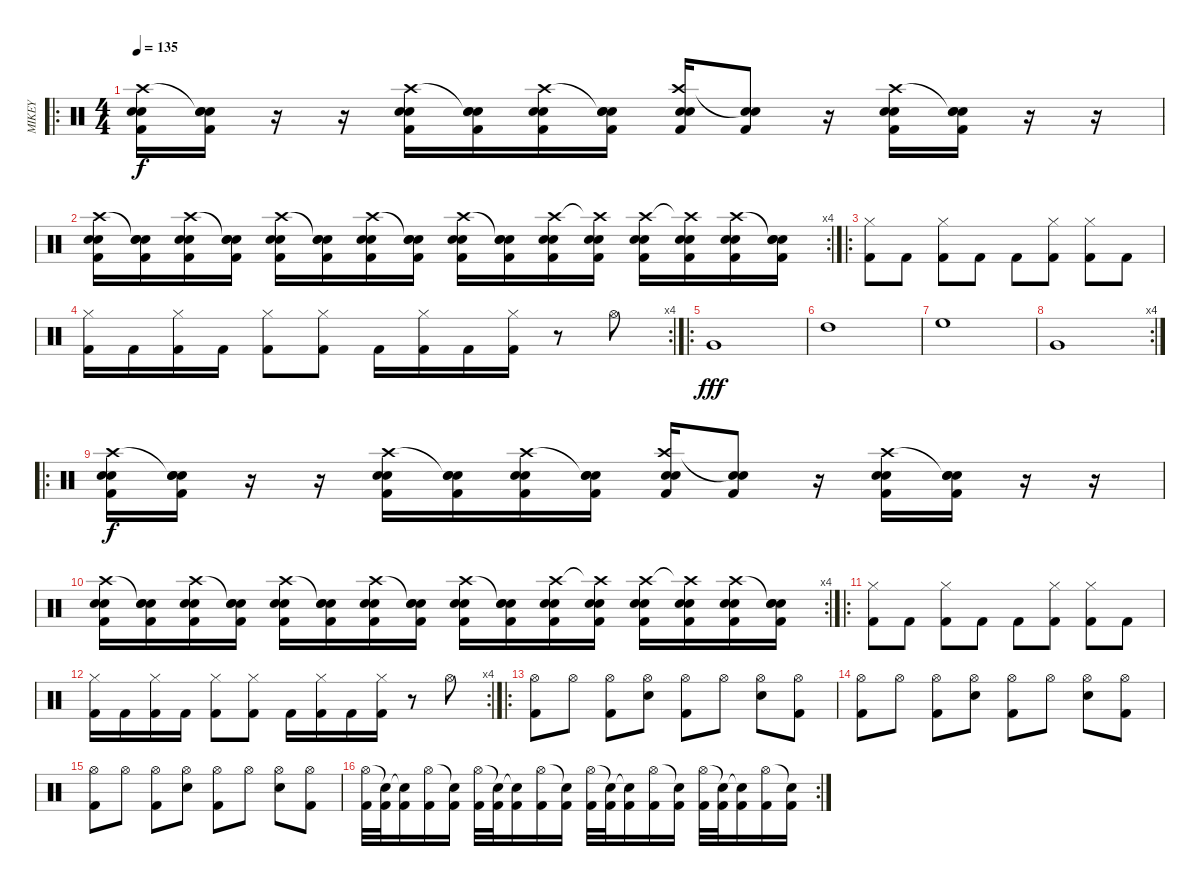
\track ("MIKEY" "MIKEY") {instrument percussion}
\staff {score}
\articulation defaults
\ro
\ts (4 4)
\tempo 135
\clef neutral
\ks c
("Snare (hit) 2" "Crash high (hit)" "Kick (hit) 2" "Electric Snare (hit)").16{dy f volume 12} ("Snare (hit) 2" "Snare (hit)"{t} "Kick (hit) 2" "Electric Snare (hit)").16 r.16 r.16 ("Snare (hit) 2" "Crash high (hit)" "Kick (hit) 2" "Electric Snare (hit)").16 ("Snare (hit) 2" "Snare (hit)"{t} "Kick (hit) 2" "Electric Snare (hit)").16 ("Snare (hit) 2" "Crash high (hit)" "Kick (hit) 2" "Electric Snare (hit)").16 ("Snare (hit) 2" "Snare (hit)"{t} "Kick (hit) 2" "Electric Snare (hit)").16 ("Snare (hit) 2" "Crash high (hit)" "Kick (hit) 2" "Electric Snare (hit)").16 ("Snare (hit) 2" "Snare (hit)"{t} "Kick (hit) 2").8 r.16 ("Snare (hit) 2" "Crash high (hit)" "Kick (hit) 2" "Electric Snare (hit)").16 ("Snare (hit) 2" "Snare (hit)"{t} "Kick (hit) 2" "Electric Snare (hit)").16 r.16 r.16 |
\rc 4
("Snare (hit) 2" "Crash high (hit)" "Kick (hit) 2" "Electric Snare (hit)").16 ("Snare (hit) 2" "Snare (hit)"{t} "Kick (hit) 2" "Electric Snare (hit)").16 ("Snare (hit) 2" "Crash high (hit)" "Kick (hit) 2" "Electric Snare (hit)").16 ("Snare (hit) 2" "Snare (hit)"{t} "Kick (hit) 2" "Electric Snare (hit)").16 ("Snare (hit) 2" "Crash high (hit)" "Kick (hit) 2" "Electric Snare (hit)").16 ("Snare (hit) 2" "Snare (hit)"{t} "Kick (hit) 2" "Electric Snare (hit)").16 ("Snare (hit) 2" "Crash high (hit)" "Kick (hit) 2" "Electric Snare (hit)").16 ("Snare (hit) 2" "Snare (hit)"{t} "Kick (hit) 2" "Electric Snare (hit)").16 ("Snare (hit) 2" "Crash high (hit)" "Kick (hit) 2" "Electric Snare (hit)").16 ("Snare (hit) 2" "Snare (hit)"{t} "Kick (hit) 2" "Electric Snare (hit)").16 ("Snare (hit) 2" "Crash high (hit)" "Kick (hit) 2" "Electric Snare (hit)").16 ("Snare (hit) 2" "Crash high (hit)"{t} "Kick (hit) 2" "Electric Snare (hit)").16 ("Snare (hit) 2" "Crash high (hit)" "Kick (hit) 2" "Electric Snare (hit)").16 ("Snare (hit) 2" "Crash high (hit)"{t} "Kick (hit) 2" "Electric Snare (hit)").16 ("Snare (hit) 2" "Crash high (hit)" "Kick (hit) 2" "Electric Snare (hit)").16 ("Snare (hit) 2" "Snare (hit)"{t} "Kick (hit) 2" "Electric Snare (hit)").16 |
\ro
("Hi-Hat (closed)" "Kick (hit) 2").8{volume 16} "Kick (hit) 2".8 ("Hi-Hat (closed)" "Kick (hit) 2").8 "Kick (hit) 2".8 "Kick (hit) 2".8 ("Hi-Hat (closed)" "Kick (hit) 2").8 ("Hi-Hat (closed)" "Kick (hit) 2").8 "Kick (hit) 2".8 |
\rc 4
("Hi-Hat (closed)" "Kick (hit) 2").16 "Kick (hit) 2".16 ("Hi-Hat (closed)" "Kick (hit) 2").16 "Kick (hit) 2".16 ("Hi-Hat (closed)" "Kick (hit) 2").8 ("Hi-Hat (closed)" "Kick (hit) 2").8 "Kick (hit) 2".16 ("Hi-Hat (closed)" "Kick (hit) 2").16 "Kick (hit) 2".16 ("Hi-Hat (closed)" "Kick (hit) 2").16 r.8 "Hi-Hat (open)".8 |
\ro "Very Low Tom (hit)".1{dy fff}
|
"High Tom (hit)".1 |
"High Floor Tom (hit)".1 |
\rc 4 "Very Low Tom (hit)".1
|
\ro
("Snare (hit) 2" "Crash high (hit)" "Kick (hit) 2" "Electric Snare (hit)").16{dy f volume 12} ("Snare (hit) 2" "Snare (hit)"{t} "Kick (hit) 2" "Electric Snare (hit)").16 r.16 r.16 ("Snare (hit) 2" "Crash high (hit)" "Kick (hit) 2" "Electric Snare (hit)").16 ("Snare (hit) 2" "Snare (hit)"{t} "Kick (hit) 2" "Electric Snare (hit)").16 ("Snare (hit) 2" "Crash high (hit)" "Kick (hit) 2" "Electric Snare (hit)").16 ("Snare (hit) 2" "Snare (hit)"{t} "Kick (hit) 2" "Electric Snare (hit)").16 ("Snare (hit) 2" "Crash high (hit)" "Kick (hit) 2" "Electric Snare (hit)").16 ("Snare (hit) 2" "Snare (hit)"{t} "Kick (hit) 2").8 r.16 ("Snare (hit) 2" "Crash high (hit)" "Kick (hit) 2" "Electric Snare (hit)").16 ("Snare (hit) 2" "Snare (hit)"{t} "Kick (hit) 2" "Electric Snare (hit)").16 r.16 r.16 |
\rc 4
("Snare (hit) 2" "Crash high (hit)" "Kick (hit) 2" "Electric Snare (hit)").16 ("Snare (hit) 2" "Snare (hit)"{t} "Kick (hit) 2" "Electric Snare (hit)").16 ("Snare (hit) 2" "Crash high (hit)" "Kick (hit) 2" "Electric Snare (hit)").16 ("Snare (hit) 2" "Snare (hit)"{t} "Kick (hit) 2" "Electric Snare (hit)").16 ("Snare (hit) 2" "Crash high (hit)" "Kick (hit) 2" "Electric Snare (hit)").16 ("Snare (hit) 2" "Snare (hit)"{t} "Kick (hit) 2" "Electric Snare (hit)").16 ("Snare (hit) 2" "Crash high (hit)" "Kick (hit) 2" "Electric Snare (hit)").16 ("Snare (hit) 2" "Snare (hit)"{t} "Kick (hit) 2" "Electric Snare (hit)").16 ("Snare (hit) 2" "Crash high (hit)" "Kick (hit) 2" "Electric Snare (hit)").16 ("Snare (hit) 2" "Snare (hit)"{t} "Kick (hit) 2" "Electric Snare (hit)").16 ("Snare (hit) 2" "Crash high (hit)" "Kick (hit) 2" "Electric Snare (hit)").16 ("Snare (hit) 2" "Crash high (hit)"{t} "Kick (hit) 2" "Electric Snare (hit)").16 ("Snare (hit) 2" "Crash high (hit)" "Kick (hit) 2" "Electric Snare (hit)").16 ("Snare (hit) 2" "Crash high (hit)"{t} "Kick (hit) 2" "Electric Snare (hit)").16 ("Snare (hit) 2" "Crash high (hit)" "Kick (hit) 2" "Electric Snare (hit)").16 ("Snare (hit) 2" "Snare (hit)"{t} "Kick (hit) 2" "Electric Snare (hit)").16 |
\ro
("Hi-Hat (closed)" "Kick (hit) 2").8{volume 16} "Kick (hit) 2".8 ("Hi-Hat (closed)" "Kick (hit) 2").8 "Kick (hit) 2".8 "Kick (hit) 2".8 ("Hi-Hat (closed)" "Kick (hit) 2").8 ("Hi-Hat (closed)" "Kick (hit) 2").8 "Kick (hit) 2".8 |
\rc 4
("Hi-Hat (closed)" "Kick (hit) 2").16 "Kick (hit) 2".16 ("Hi-Hat (closed)" "Kick (hit) 2").16 "Kick (hit) 2".16 ("Hi-Hat (closed)" "Kick (hit) 2").8 ("Hi-Hat (closed)" "Kick (hit) 2").8 "Kick (hit) 2".16 ("Hi-Hat (closed)" "Kick (hit) 2").16 "Kick (hit) 2".16 ("Hi-Hat (closed)" "Kick (hit) 2").16 r.8 "Hi-Hat (open)".8 |
\ro
("Kick (hit) 2" "Hi-Hat (open)").8 "Hi-Hat (open)".8 ("Kick (hit) 2" "Hi-Hat (open)").8 ("Snare (hit) 2" "Hi-Hat (open)").8 ("Kick (hit) 2" "Hi-Hat (open)").8 "Hi-Hat (open)".8 ("Snare (hit) 2" "Hi-Hat (open)").8 ("Kick (hit) 2" "Hi-Hat (open)").8 |
("Kick (hit) 2" "Hi-Hat (open)").8 "Hi-Hat (open)".8 ("Kick (hit) 2" "Hi-Hat (open)").8 ("Snare (hit) 2" "Hi-Hat (open)").8 ("Kick (hit) 2" "Hi-Hat (open)").8 "Hi-Hat (open)".8 ("Snare (hit) 2" "Hi-Hat (open)").8 ("Kick (hit) 2" "Hi-Hat (open)").8 |
("Kick (hit) 2" "Hi-Hat (open)").8 "Hi-Hat (open)".8 ("Kick (hit) 2" "Hi-Hat (open)").8 ("Snare (hit) 2" "Hi-Hat (open)").8 ("Kick (hit) 2" "Hi-Hat (open)").8 "Hi-Hat (open)".8 ("Snare (hit) 2" "Hi-Hat (open)").8 ("Kick (hit) 2" "Hi-Hat (open)").8 |
\rc 2
("Hi-Hat (open)" "Kick (hit) 2").32 ("Snare (hit)"{t} "Kick (hit) 2").32 ("Snare (hit)"{t} "Kick (hit) 2").16 ("Hi-Hat (open)" "Kick (hit) 2").16 ("Snare (hit)"{t} "Kick (hit) 2").16 ("Hi-Hat (open)" "Kick (hit) 2").32 ("Snare (hit)"{t} "Kick (hit) 2").32 ("Snare (hit)"{t} "Kick (hit) 2").16 ("Hi-Hat (open)" "Kick (hit) 2").16 ("Snare (hit)"{t} "Kick (hit) 2").16 ("Hi-Hat (open)" "Kick (hit) 2").32 ("Snare (hit)"{t} "Kick (hit) 2").32 ("Snare (hit)"{t} "Kick (hit) 2").16 ("Hi-Hat (open)" "Kick (hit) 2").16 ("Snare (hit)"{t} "Kick (hit) 2").16 ("Hi-Hat (open)" "Kick (hit) 2").32 ("Snare (hit)"{t} "Kick (hit) 2").32 ("Snare (hit)"{t} "Kick (hit) 2").16 ("Hi-Hat (open)" "Kick (hit) 2").16 ("Snare (hit)"{t} "Kick (hit) 2").16
